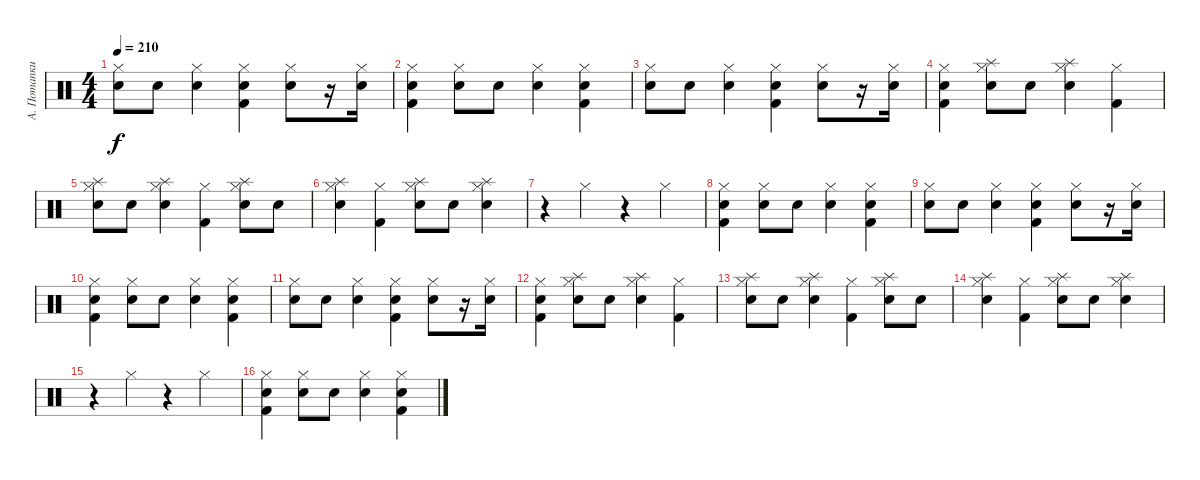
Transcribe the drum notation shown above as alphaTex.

\track ("А. Потапкин" "А. Потапки") {instrument percussion}
\staff {score}
\articulation defaults
\ts (4 4)
\tempo 210
\clef neutral
\ks c
("Hi-Hat (closed)" "Electric Snare (hit)").8{dy f} "Electric Snare (hit)".8 ("Hi-Hat (closed)" "Electric Snare (hit)").4 ("Hi-Hat (closed)" "Electric Snare (hit)" "Kick (hit) 2").4 ("Hi-Hat (closed)" "Electric Snare (hit)").8 r.16 ("Hi-Hat (closed)" "Electric Snare (hit)").16 |
("Hi-Hat (closed)" "Electric Snare (hit)" "Kick (hit) 2").4 ("Hi-Hat (closed)" "Electric Snare (hit)").8 "Electric Snare (hit)".8 ("Hi-Hat (closed)" "Electric Snare (hit)").4 ("Hi-Hat (closed)" "Electric Snare (hit)" "Kick (hit) 2").4 |
("Hi-Hat (closed)" "Electric Snare (hit)").8 "Electric Snare (hit)".8 ("Hi-Hat (closed)" "Electric Snare (hit)").4 ("Hi-Hat (closed)" "Electric Snare (hit)" "Kick (hit) 2").4 ("Hi-Hat (closed)" "Electric Snare (hit)").8 r.16 ("Hi-Hat (closed)" "Electric Snare (hit)").16 |
("Hi-Hat (closed)" "Electric Snare (hit)" "Kick (hit) 2").4 ("Hi-Hat (closed)" "Splash (hit)" "Electric Snare (hit)").8 "Electric Snare (hit)".8 ("Hi-Hat (closed)" "Splash (hit)" "Electric Snare (hit)").4 ("Hi-Hat (closed)" "Kick (hit) 2").4 |
("Hi-Hat (closed)" "Splash (hit)" "Electric Snare (hit)").8 "Electric Snare (hit)".8 ("Hi-Hat (closed)" "Splash (hit)" "Electric Snare (hit)").4 ("Hi-Hat (closed)" "Kick (hit) 2").4 ("Hi-Hat (closed)" "Splash (hit)" "Electric Snare (hit)").8 "Electric Snare (hit)".8 |
("Hi-Hat (closed)" "Splash (hit)" "Electric Snare (hit)").4 ("Hi-Hat (closed)" "Kick (hit) 2").4 ("Hi-Hat (closed)" "Splash (hit)" "Electric Snare (hit)").8 "Electric Snare (hit)".8 ("Hi-Hat (closed)" "Splash (hit)" "Electric Snare (hit)").4 |
r.4 "Hi-Hat (closed)".4 r.4 "Hi-Hat (closed)".4 |
("Hi-Hat (closed)" "Electric Snare (hit)" "Kick (hit) 2").4 ("Hi-Hat (closed)" "Electric Snare (hit)").8 "Electric Snare (hit)".8 ("Hi-Hat (closed)" "Electric Snare (hit)").4 ("Hi-Hat (closed)" "Electric Snare (hit)" "Kick (hit) 2").4 |
("Hi-Hat (closed)" "Electric Snare (hit)").8 "Electric Snare (hit)".8 ("Hi-Hat (closed)" "Electric Snare (hit)").4 ("Hi-Hat (closed)" "Electric Snare (hit)" "Kick (hit) 2").4 ("Hi-Hat (closed)" "Electric Snare (hit)").8 r.16 ("Hi-Hat (closed)" "Electric Snare (hit)").16 |
("Hi-Hat (closed)" "Electric Snare (hit)" "Kick (hit) 2").4 ("Hi-Hat (closed)" "Electric Snare (hit)").8 "Electric Snare (hit)".8 ("Hi-Hat (closed)" "Electric Snare (hit)").4 ("Hi-Hat (closed)" "Electric Snare (hit)" "Kick (hit) 2").4 |
("Hi-Hat (closed)" "Electric Snare (hit)").8 "Electric Snare (hit)".8 ("Hi-Hat (closed)" "Electric Snare (hit)").4 ("Hi-Hat (closed)" "Electric Snare (hit)" "Kick (hit) 2").4 ("Hi-Hat (closed)" "Electric Snare (hit)").8 r.16 ("Hi-Hat (closed)" "Electric Snare (hit)").16 |
("Hi-Hat (closed)" "Electric Snare (hit)" "Kick (hit) 2").4 ("Hi-Hat (closed)" "Splash (hit)" "Electric Snare (hit)").8 "Electric Snare (hit)".8 ("Hi-Hat (closed)" "Splash (hit)" "Electric Snare (hit)").4 ("Hi-Hat (closed)" "Kick (hit) 2").4 |
("Hi-Hat (closed)" "Splash (hit)" "Electric Snare (hit)").8 "Electric Snare (hit)".8 ("Hi-Hat (closed)" "Splash (hit)" "Electric Snare (hit)").4 ("Hi-Hat (closed)" "Kick (hit) 2").4 ("Hi-Hat (closed)" "Splash (hit)" "Electric Snare (hit)").8 "Electric Snare (hit)".8 |
("Hi-Hat (closed)" "Splash (hit)" "Electric Snare (hit)").4 ("Hi-Hat (closed)" "Kick (hit) 2").4 ("Hi-Hat (closed)" "Splash (hit)" "Electric Snare (hit)").8 "Electric Snare (hit)".8 ("Hi-Hat (closed)" "Splash (hit)" "Electric Snare (hit)").4 |
r.4 "Hi-Hat (closed)".4 r.4 "Hi-Hat (closed)".4 |
("Hi-Hat (closed)" "Electric Snare (hit)" "Kick (hit) 2").4 ("Hi-Hat (closed)" "Electric Snare (hit)").8 "Electric Snare (hit)".8 ("Hi-Hat (closed)" "Electric Snare (hit)").4 ("Hi-Hat (closed)" "Electric Snare (hit)" "Kick (hit) 2").4
